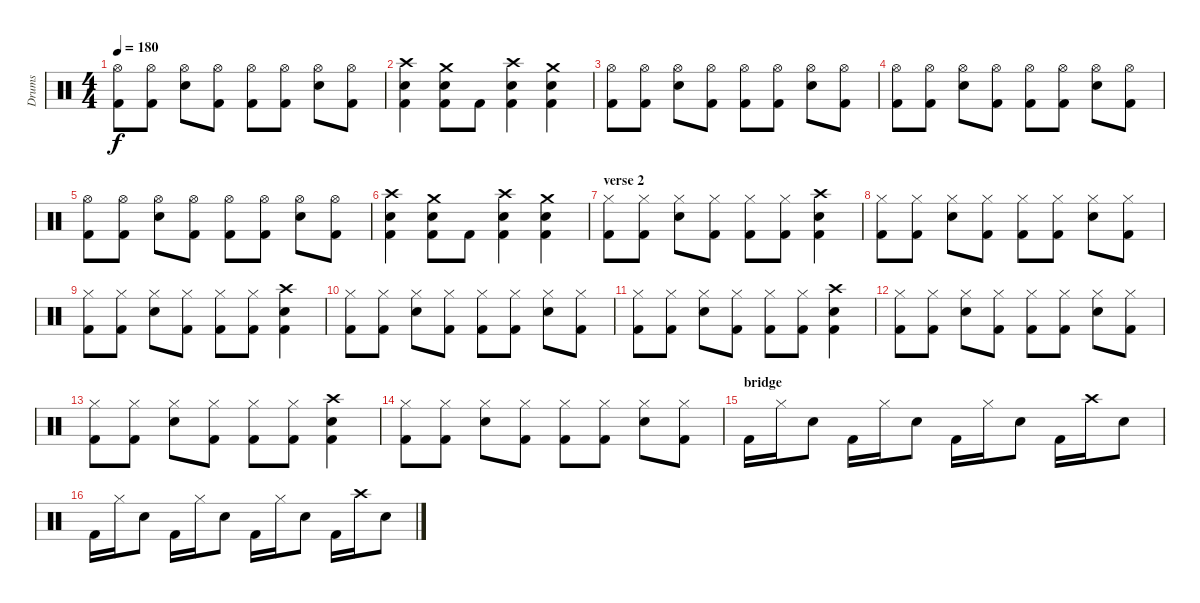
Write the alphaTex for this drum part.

\track ("Drums" "Drums") {instrument percussion}
\staff {score}
\articulation defaults
\ts (4 4)
\tempo 180
\clef neutral
\ks c
("Hi-Hat (open)" "Kick (hit) 2").8{dy f} ("Hi-Hat (open)" "Kick (hit) 2").8 ("Hi-Hat (open)" "Electric Snare (hit)").8 ("Hi-Hat (open)" "Kick (hit) 2").8 ("Hi-Hat (open)" "Kick (hit) 2").8 ("Hi-Hat (open)" "Kick (hit) 2").8 ("Hi-Hat (open)" "Electric Snare (hit)").8 ("Hi-Hat (open)" "Kick (hit) 2").8 |
("Crash high (hit)" "Electric Snare (hit)" "Kick (hit) 2").4 ("Crash medium (hit)" "Electric Snare (hit)" "Kick (hit) 2").8 "Kick (hit) 2".8 ("Crash high (hit)" "Electric Snare (hit)" "Kick (hit) 2").4 ("Crash medium (hit)" "Electric Snare (hit)" "Kick (hit) 2").4 |
("Hi-Hat (open)" "Kick (hit) 2").8 ("Hi-Hat (open)" "Kick (hit) 2").8 ("Hi-Hat (open)" "Electric Snare (hit)").8 ("Hi-Hat (open)" "Kick (hit) 2").8 ("Hi-Hat (open)" "Kick (hit) 2").8 ("Hi-Hat (open)" "Kick (hit) 2").8 ("Hi-Hat (open)" "Electric Snare (hit)").8 ("Hi-Hat (open)" "Kick (hit) 2").8 |
("Hi-Hat (open)" "Kick (hit) 2").8 ("Hi-Hat (open)" "Kick (hit) 2").8 ("Hi-Hat (open)" "Electric Snare (hit)").8 ("Hi-Hat (open)" "Kick (hit) 2").8 ("Hi-Hat (open)" "Kick (hit) 2").8 ("Hi-Hat (open)" "Kick (hit) 2").8 ("Hi-Hat (open)" "Electric Snare (hit)").8 ("Hi-Hat (open)" "Kick (hit) 2").8 |
("Hi-Hat (open)" "Kick (hit) 2").8 ("Hi-Hat (open)" "Kick (hit) 2").8 ("Hi-Hat (open)" "Electric Snare (hit)").8 ("Hi-Hat (open)" "Kick (hit) 2").8 ("Hi-Hat (open)" "Kick (hit) 2").8 ("Hi-Hat (open)" "Kick (hit) 2").8 ("Hi-Hat (open)" "Electric Snare (hit)").8 ("Hi-Hat (open)" "Kick (hit) 2").8 |
("Crash high (hit)" "Electric Snare (hit)" "Kick (hit) 2").4 ("Crash medium (hit)" "Electric Snare (hit)" "Kick (hit) 2").8 "Kick (hit) 2".8 ("Crash high (hit)" "Electric Snare (hit)" "Kick (hit) 2").4 ("Crash medium (hit)" "Electric Snare (hit)" "Kick (hit) 2").4 |
\section ("" "verse 2")
("Hi-Hat (closed)" "Kick (hit) 2").8 ("Hi-Hat (closed)" "Kick (hit) 2").8 ("Hi-Hat (closed)" "Electric Snare (hit)").8 ("Hi-Hat (closed)" "Kick (hit) 2").8 ("Hi-Hat (closed)" "Kick (hit) 2").8 ("Hi-Hat (closed)" "Kick (hit) 2").8 ("Crash high (hit)" "Electric Snare (hit)" "Kick (hit) 2").4 |
("Hi-Hat (closed)" "Kick (hit) 2").8 ("Hi-Hat (closed)" "Kick (hit) 2").8 ("Hi-Hat (closed)" "Electric Snare (hit)").8 ("Hi-Hat (closed)" "Kick (hit) 2").8 ("Hi-Hat (closed)" "Kick (hit) 2").8 ("Hi-Hat (closed)" "Kick (hit) 2").8 ("Hi-Hat (closed)" "Electric Snare (hit)").8 ("Hi-Hat (closed)" "Kick (hit) 2").8 |
("Hi-Hat (closed)" "Kick (hit) 2").8 ("Hi-Hat (closed)" "Kick (hit) 2").8 ("Hi-Hat (closed)" "Electric Snare (hit)").8 ("Hi-Hat (closed)" "Kick (hit) 2").8 ("Hi-Hat (closed)" "Kick (hit) 2").8 ("Hi-Hat (closed)" "Kick (hit) 2").8 ("Crash high (hit)" "Electric Snare (hit)" "Kick (hit) 2").4 |
("Hi-Hat (closed)" "Kick (hit) 2").8 ("Hi-Hat (closed)" "Kick (hit) 2").8 ("Hi-Hat (closed)" "Electric Snare (hit)").8 ("Hi-Hat (closed)" "Kick (hit) 2").8 ("Hi-Hat (closed)" "Kick (hit) 2").8 ("Hi-Hat (closed)" "Kick (hit) 2").8 ("Hi-Hat (closed)" "Electric Snare (hit)").8 ("Hi-Hat (closed)" "Kick (hit) 2").8 |
("Hi-Hat (closed)" "Kick (hit) 2").8 ("Hi-Hat (closed)" "Kick (hit) 2").8 ("Hi-Hat (closed)" "Electric Snare (hit)").8 ("Hi-Hat (closed)" "Kick (hit) 2").8 ("Hi-Hat (closed)" "Kick (hit) 2").8 ("Hi-Hat (closed)" "Kick (hit) 2").8 ("Crash high (hit)" "Electric Snare (hit)" "Kick (hit) 2").4 |
("Hi-Hat (closed)" "Kick (hit) 2").8 ("Hi-Hat (closed)" "Kick (hit) 2").8 ("Hi-Hat (closed)" "Electric Snare (hit)").8 ("Hi-Hat (closed)" "Kick (hit) 2").8 ("Hi-Hat (closed)" "Kick (hit) 2").8 ("Hi-Hat (closed)" "Kick (hit) 2").8 ("Hi-Hat (closed)" "Electric Snare (hit)").8 ("Hi-Hat (closed)" "Kick (hit) 2").8 |
("Hi-Hat (closed)" "Kick (hit) 2").8 ("Hi-Hat (closed)" "Kick (hit) 2").8 ("Hi-Hat (closed)" "Electric Snare (hit)").8 ("Hi-Hat (closed)" "Kick (hit) 2").8 ("Hi-Hat (closed)" "Kick (hit) 2").8 ("Hi-Hat (closed)" "Kick (hit) 2").8 ("Crash high (hit)" "Electric Snare (hit)" "Kick (hit) 2").4 |
("Hi-Hat (closed)" "Kick (hit) 2").8 ("Hi-Hat (closed)" "Kick (hit) 2").8 ("Hi-Hat (closed)" "Electric Snare (hit)").8 ("Hi-Hat (closed)" "Kick (hit) 2").8 ("Hi-Hat (closed)" "Kick (hit) 2").8 ("Hi-Hat (closed)" "Kick (hit) 2").8 ("Hi-Hat (closed)" "Electric Snare (hit)").8 ("Hi-Hat (closed)" "Kick (hit) 2").8 |
\section ("" "bridge")
"Kick (hit) 2".16 "Hi-Hat (closed)".16 "Electric Snare (hit)".8 "Kick (hit) 2".16 "Hi-Hat (closed)".16 "Electric Snare (hit)".8 "Kick (hit) 2".16 "Hi-Hat (closed)".16 "Electric Snare (hit)".8 "Kick (hit) 2".16 "Crash high (hit)".16 "Electric Snare (hit)".8 |
"Kick (hit) 2".16 "Hi-Hat (closed)".16 "Electric Snare (hit)".8 "Kick (hit) 2".16 "Hi-Hat (closed)".16 "Electric Snare (hit)".8 "Kick (hit) 2".16 "Hi-Hat (closed)".16 "Electric Snare (hit)".8 "Kick (hit) 2".16 "Crash high (hit)".16 "Electric Snare (hit)".8
